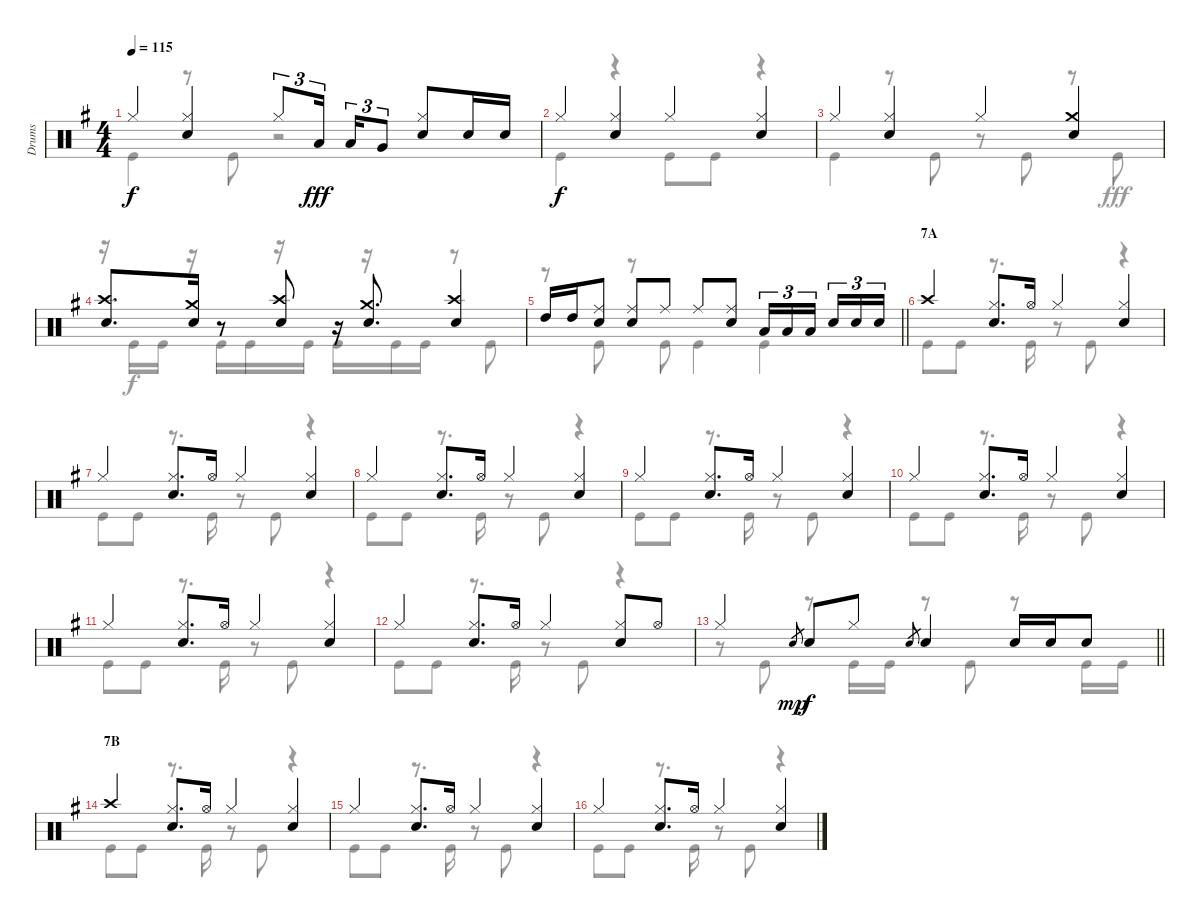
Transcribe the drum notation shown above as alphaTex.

\track ("Drums" "Drums") {instrument percussion}
\staff {score}
\articulation defaults
\voice
\ts (4 4)
\tempo 115
\clef neutral
\ks g "Hi-Hat (closed)".4{dy f}
("Hi-Hat (closed)" "Snare (hit) 2").4 "Hi-Hat (closed)".8{tu (3 2)} "Low Tom (hit)".16{tu (3 2) dy fff beam splitsecondary} "Low Tom (hit)".16{tu (3 2)} "Very Low Tom (hit)".8{tu (3 2)} ("Hi-Hat (closed)" "Snare (hit) 2").8 "Snare (hit) 2".16 "Snare (hit) 2".16 |
"Hi-Hat (closed)".4{dy f} ("Hi-Hat (closed)" "Snare (hit) 2").4 "Hi-Hat (closed)".4 ("Hi-Hat (closed)" "Snare (hit) 2").4 |
"Hi-Hat (closed)".4 ("Hi-Hat (closed)" "Snare (hit) 2").4 "Hi-Hat (closed)".4 ("Crash medium (hit)" "Snare (hit) 2").4 |
("Crash high (hit)" "Snare (hit) 2").8{d} ("Crash medium (hit)" "Snare (hit) 2").16 r.8 ("Crash high (hit)" "Snare (hit) 2").8 r.16 ("Crash medium (hit)" "Snare (hit) 2").8{d} ("Crash high (hit)" "Snare (hit) 2").4 |
\barLineRight lightlight "High Tom (hit)".16 "High Tom (hit)".16
("Ride (middle)" "Snare (hit) 2").8 ("Ride (middle)" "Snare (hit) 2").8 "Ride (middle)".8 "Ride (middle)".8 ("Ride (middle)" "Snare (hit) 2").8 "Low Tom (hit)".16{tu (3 2)} "Low Tom (hit)".16{tu (3 2)} "Low Tom (hit)".16{tu (3 2) beam splitsecondary} "Snare (hit) 2".16{tu (3 2)} "Snare (hit) 2".16{tu (3 2)} "Snare (hit) 2".16{tu (3 2)} |
\section ("" "7A")
"Crash high (hit)".4 ("Hi-Hat (closed)" "Snare (hit) 2").8{d} "Hi-Hat (open)".16 "Hi-Hat (closed)".4 ("Hi-Hat (closed)" "Snare (hit) 2").4 |
"Hi-Hat (closed)".4 ("Hi-Hat (closed)" "Snare (hit) 2").8{d} "Hi-Hat (open)".16 "Hi-Hat (closed)".4 ("Hi-Hat (closed)" "Snare (hit) 2").4 |
"Hi-Hat (closed)".4 ("Hi-Hat (closed)" "Snare (hit) 2").8{d} "Hi-Hat (open)".16 "Hi-Hat (closed)".4 ("Hi-Hat (closed)" "Snare (hit) 2").4 |
"Hi-Hat (closed)".4 ("Hi-Hat (closed)" "Snare (hit) 2").8{d} "Hi-Hat (open)".16 "Hi-Hat (closed)".4 ("Hi-Hat (closed)" "Snare (hit) 2").4 |
"Hi-Hat (closed)".4 ("Hi-Hat (closed)" "Snare (hit) 2").8{d} "Hi-Hat (open)".16 "Hi-Hat (closed)".4 ("Hi-Hat (closed)" "Snare (hit) 2").4 |
"Hi-Hat (closed)".4 ("Hi-Hat (closed)" "Snare (hit) 2").8{d} "Hi-Hat (open)".16 "Hi-Hat (closed)".4 ("Hi-Hat (closed)" "Snare (hit) 2").4 |
"Hi-Hat (closed)".4 ("Hi-Hat (closed)" "Snare (hit) 2").8{d} "Hi-Hat (open)".16 "Hi-Hat (closed)".4 ("Hi-Hat (closed)" "Snare (hit) 2").8 "Hi-Hat (open)".8 |
\barLineRight lightlight "Hi-Hat (closed)".4 "Snare (hit) 2".8{gr dy mp} "Snare (hit) 2".8{dy f} "Hi-Hat (closed)".8 "Snare (hit) 2".8{gr} "Snare (hit) 2".4 "Snare (hit) 2".16 "Snare (hit) 2".16 "Snare (hit) 2".8
|
\section ("" "7B")
"Crash high (hit)".4 ("Hi-Hat (closed)" "Snare (hit) 2").8{d} "Hi-Hat (open)".16 "Hi-Hat (closed)".4 ("Hi-Hat (closed)" "Snare (hit) 2").4 |
"Hi-Hat (closed)".4 ("Hi-Hat (closed)" "Snare (hit) 2").8{d} "Hi-Hat (open)".16 "Hi-Hat (closed)".4 ("Hi-Hat (closed)" "Snare (hit) 2").4 |
"Hi-Hat (closed)".4 ("Hi-Hat (closed)" "Snare (hit) 2").8{d} "Hi-Hat (open)".16 "Hi-Hat (closed)".4 ("Hi-Hat (closed)" "Snare (hit) 2").4
\voice
\clef neutral
\ottava regular
\simile none
\ks g "Kick (hit)".4{dy f}
r.8 "Kick (hit)".8 r.2 |
"Kick (hit)".4 r.4 "Kick (hit)".8 "Kick (hit)".8 r.4 |
"Kick (hit)".4 r.8 "Kick (hit)".8 r.8 "Kick (hit)".8 r.8 "Kick (hit)".8{dy fff} |
r.16 "Kick (hit)".16{dy f} "Kick (hit)".16 r.16 "Kick (hit)".16 "Kick (hit)".16 r.16 "Kick (hit)".16 "Kick (hit)".16 r.16 "Kick (hit)".16 "Kick (hit)".16 r.8 "Kick (hit)".8 |
\barLineRight lightlight
r.8 "Kick (hit)".8 r.8 "Kick (hit)".8 "Kick (hit)".4 "Kick (hit)".4 |
"Kick (hit)".8 "Kick (hit)".8 r.8{d} "Kick (hit)".16 r.8 "Kick (hit)".8 r.4 |
"Kick (hit)".8 "Kick (hit)".8 r.8{d} "Kick (hit)".16 r.8 "Kick (hit)".8 r.4 |
"Kick (hit)".8 "Kick (hit)".8 r.8{d} "Kick (hit)".16 r.8 "Kick (hit)".8 r.4 |
"Kick (hit)".8 "Kick (hit)".8 r.8{d} "Kick (hit)".16 r.8 "Kick (hit)".8 r.4 |
"Kick (hit)".8 "Kick (hit)".8 r.8{d} "Kick (hit)".16 r.8 "Kick (hit)".8 r.4 |
"Kick (hit)".8 "Kick (hit)".8 r.8{d} "Kick (hit)".16 r.8 "Kick (hit)".8 r.4 |
"Kick (hit)".8 "Kick (hit)".8 r.8{d} "Kick (hit)".16 r.8 "Kick (hit)".8 r.4 |
\barLineRight lightlight
r.8 "Kick (hit)".8 r.8 "Kick (hit)".16 "Kick (hit)".16 r.8 "Kick (hit)".8 r.8 "Kick (hit)".16 "Kick (hit)".16 |
"Kick (hit)".8 "Kick (hit)".8 r.8{d} "Kick (hit)".16 r.8 "Kick (hit)".8 r.4 |
"Kick (hit)".8 "Kick (hit)".8 r.8{d} "Kick (hit)".16 r.8 "Kick (hit)".8 r.4 |
"Kick (hit)".8 "Kick (hit)".8 r.8{d} "Kick (hit)".16 r.8 "Kick (hit)".8 r.4
